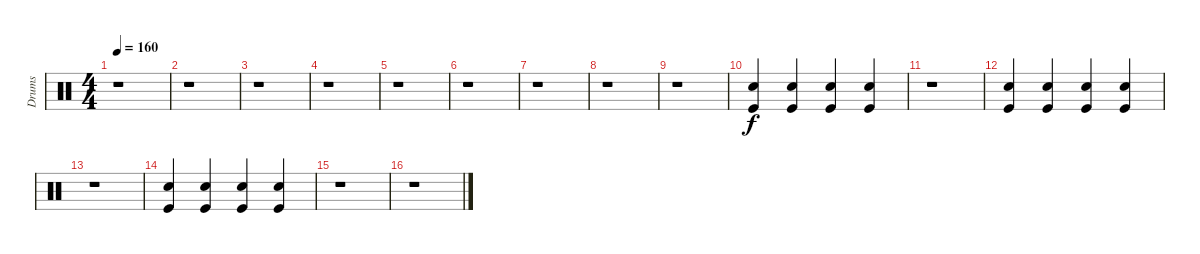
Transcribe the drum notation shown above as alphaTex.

\track ("Drums" "Drums") {instrument percussion}
\staff {score}
\articulation defaults
\ts (4 4)
\tempo 160
\clef neutral
\ks c
r.1{dy f} |
r.1 |
r.1 |
r.1 |
r.1 |
r.1 |
r.1 |
r.1 |
r.1 |
("Snare (hit) 2" "Kick (hit)").4 ("Snare (hit) 2" "Kick (hit)").4 ("Snare (hit) 2" "Kick (hit)").4 ("Snare (hit) 2" "Kick (hit)").4 |
r.1 |
("Snare (hit) 2" "Kick (hit)").4 ("Snare (hit) 2" "Kick (hit)").4 ("Snare (hit) 2" "Kick (hit)").4 ("Snare (hit) 2" "Kick (hit)").4 |
r.1 |
("Snare (hit) 2" "Kick (hit)").4 ("Snare (hit) 2" "Kick (hit)").4 ("Snare (hit) 2" "Kick (hit)").4 ("Snare (hit) 2" "Kick (hit)").4 |
r.1 |
r.1
